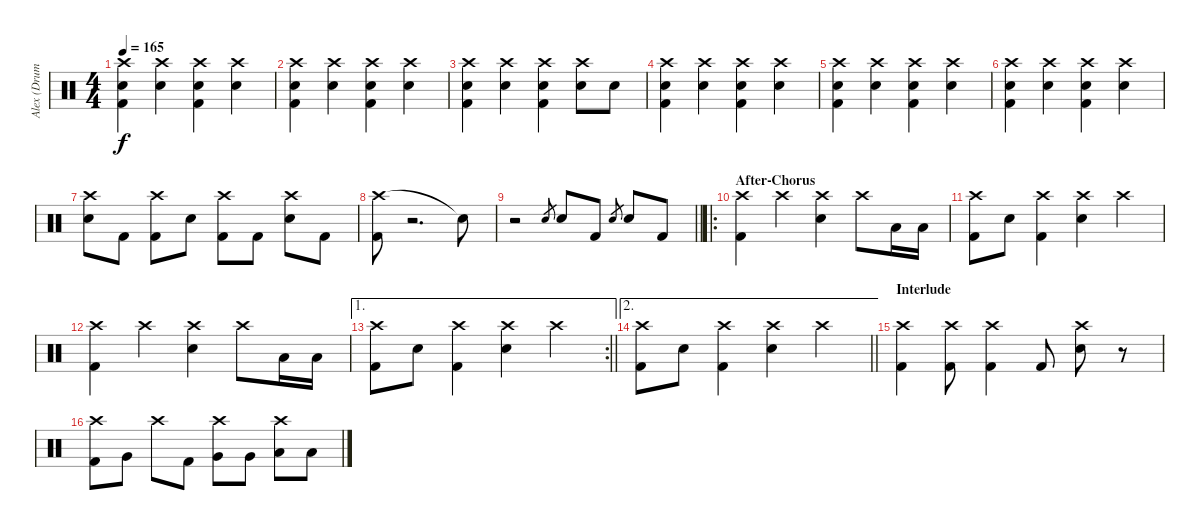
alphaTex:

\track ("Alex (Drums)" "Alex (Drum") {instrument percussion}
\staff {score}
\articulation defaults
\ts (4 4)
\tempo 165
\clef neutral
\ks c
("Crash high (hit)" "Snare (hit) 2" "Kick (hit) 2").4{dy f} ("Crash high (hit)" "Snare (hit) 2").4 ("Crash high (hit)" "Snare (hit) 2" "Kick (hit) 2").4 ("Crash high (hit)" "Snare (hit) 2").4 |
("Crash high (hit)" "Snare (hit) 2" "Kick (hit) 2").4 ("Crash high (hit)" "Snare (hit) 2").4 ("Crash high (hit)" "Snare (hit) 2" "Kick (hit) 2").4 ("Crash high (hit)" "Snare (hit) 2").4 |
("Crash high (hit)" "Snare (hit) 2" "Kick (hit) 2").4 ("Crash high (hit)" "Snare (hit) 2").4 ("Crash high (hit)" "Snare (hit) 2" "Kick (hit) 2").4 ("Crash high (hit)" "Snare (hit) 2").8 "Snare (hit) 2".8 |
("Crash high (hit)" "Snare (hit) 2" "Kick (hit) 2").4 ("Crash high (hit)" "Snare (hit) 2").4 ("Crash high (hit)" "Snare (hit) 2" "Kick (hit) 2").4 ("Crash high (hit)" "Snare (hit) 2").4 |
("Crash high (hit)" "Snare (hit) 2" "Kick (hit) 2").4 ("Crash high (hit)" "Snare (hit) 2").4 ("Crash high (hit)" "Snare (hit) 2" "Kick (hit) 2").4 ("Crash high (hit)" "Snare (hit) 2").4 |
("Crash high (hit)" "Snare (hit) 2" "Kick (hit) 2").4 ("Crash high (hit)" "Snare (hit) 2").4 ("Crash high (hit)" "Snare (hit) 2" "Kick (hit) 2").4 ("Crash high (hit)" "Snare (hit) 2").4 |
("Crash high (hit)" "Snare (hit) 2").8 "Kick (hit) 2".8 ("Crash high (hit)" "Kick (hit) 2").8 "Snare (hit) 2".8 ("Crash high (hit)" "Kick (hit) 2").8 "Kick (hit) 2".8 ("Crash high (hit)" "Snare (hit) 2").8 "Kick (hit) 2".8 |
("Crash high (hit)" "Kick (hit) 2").8{volume 8} r.2{d} "Snare (hit)"{t}.8 |
\barLineRight lightlight
r.2 "Snare (hit) 2".8{gr} "Snare (hit) 2".8 "Kick (hit) 2".8 "Snare (hit) 2".8{gr} "Snare (hit) 2".8 "Kick (hit) 2".8 |
\ro
\section ("" "After-Chorus")
("Crash high (hit)" "Kick (hit) 2").4 "Crash high (hit)".4 ("Crash high (hit)" "Snare (hit) 2").4 "Crash high (hit)".8 "Low Floor Tom (hit)".16 "Low Floor Tom (hit)".16 |
("Crash high (hit)" "Kick (hit) 2").8 "Snare (hit) 2".8 ("Crash high (hit)" "Kick (hit) 2").4 ("Crash high (hit)" "Snare (hit) 2").4 "Crash high (hit)".4 |
("Crash high (hit)" "Kick (hit) 2").4 "Crash high (hit)".4 ("Crash high (hit)" "Snare (hit) 2").4 "Crash high (hit)".8 "Low Floor Tom (hit)".16 "Low Floor Tom (hit)".16 |
\ae 1
\rc 2
\barLineRight lightlight
("Crash high (hit)" "Kick (hit) 2").8 "Snare (hit) 2".8 ("Crash high (hit)" "Kick (hit) 2").4 ("Crash high (hit)" "Snare (hit) 2").4 "Crash high (hit)".4 |
\ae 2
\barLineRight lightlight
("Crash high (hit)" "Kick (hit) 2").8 "Snare (hit) 2".8 ("Crash high (hit)" "Kick (hit) 2").4 ("Crash high (hit)" "Snare (hit) 2").4 "Crash high (hit)".4 |
\section ("" "Interlude")
("Crash high (hit)" "Kick (hit) 2").4{volume 9} ("Crash high (hit)" "Kick (hit) 2").8 ("Crash high (hit)" "Kick (hit) 2").4 "Kick (hit) 2".8 ("Crash high (hit)" "Snare (hit) 2").8 r.8 |
("Crash high (hit)" "Kick (hit) 2").8 "Very Low Tom (hit)".8 "Crash high (hit)".8 "Kick (hit) 2".8 ("Crash high (hit)" "Very Low Tom (hit)").8 "Very Low Tom (hit)".8 ("Crash high (hit)" "Low Floor Tom (hit)").8 "Low Floor Tom (hit)".8
